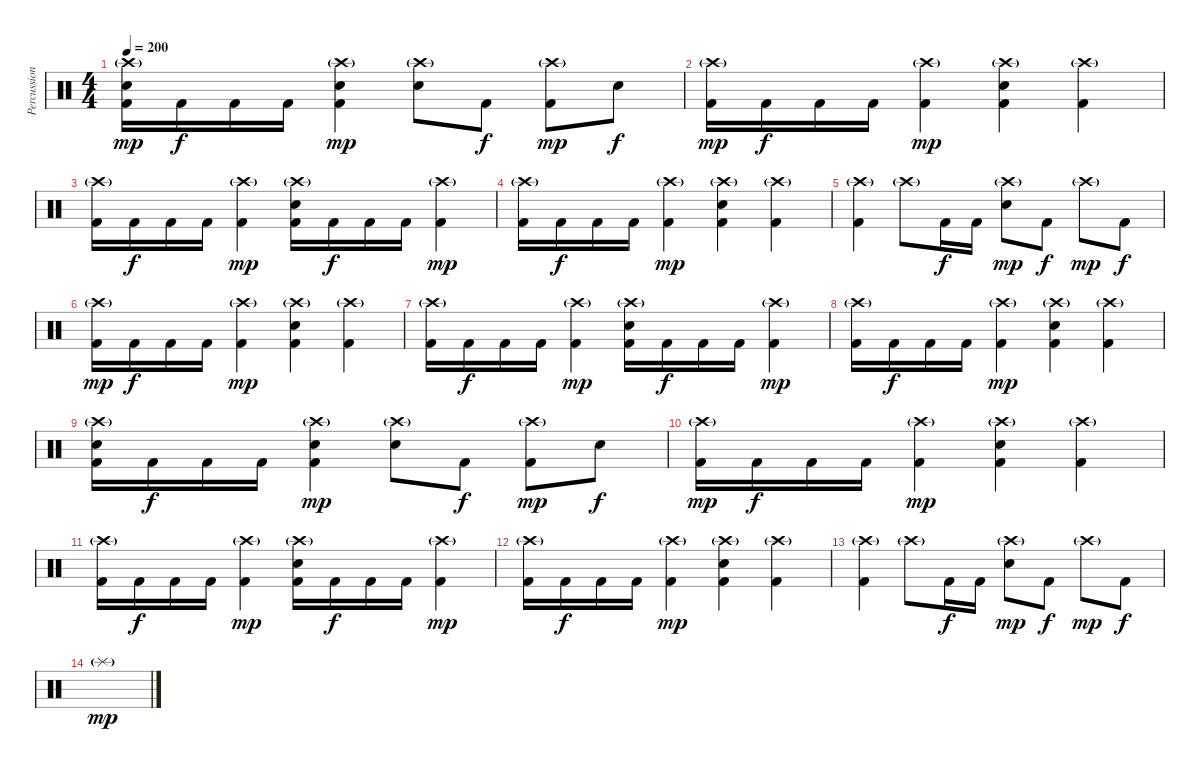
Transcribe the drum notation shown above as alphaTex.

\track ("Percussion" "Percussion") {instrument percussion}
\staff {score}
\articulation defaults
\ts (4 4)
\tempo 200
\clef neutral
\ks c
("Crash high (hit)"{g} "Electric Snare (hit)" "Kick (hit) 2").16{dy mp} "Kick (hit) 2".16{dy f} "Kick (hit) 2".16 "Kick (hit) 2".16 ("Crash high (hit)"{g} "Electric Snare (hit)" "Kick (hit) 2").4{dy mp} ("Crash high (hit)"{g} "Electric Snare (hit)").8 "Kick (hit) 2".8{dy f} ("Crash high (hit)"{g} "Kick (hit) 2").8{dy mp} "Electric Snare (hit)".8{dy f} |
("Crash high (hit)"{g} "Kick (hit) 2").16{dy mp} "Kick (hit) 2".16{dy f} "Kick (hit) 2".16 "Kick (hit) 2".16 ("Crash high (hit)"{g} "Kick (hit) 2").4{dy mp} ("Crash high (hit)"{g} "Electric Snare (hit)" "Kick (hit) 2").4 ("Crash high (hit)"{g} "Kick (hit) 2").4 |
("Crash high (hit)"{g} "Kick (hit) 2").16 "Kick (hit) 2".16{dy f} "Kick (hit) 2".16 "Kick (hit) 2".16 ("Crash high (hit)"{g} "Kick (hit) 2").4{dy mp} ("Crash high (hit)"{g} "Electric Snare (hit)" "Kick (hit) 2").16 "Kick (hit) 2".16{dy f} "Kick (hit) 2".16 "Kick (hit) 2".16 ("Crash high (hit)"{g} "Kick (hit) 2").4{dy mp} |
("Crash high (hit)"{g} "Kick (hit) 2").16 "Kick (hit) 2".16{dy f} "Kick (hit) 2".16 "Kick (hit) 2".16 ("Crash high (hit)"{g} "Kick (hit) 2").4{dy mp} ("Crash high (hit)"{g} "Electric Snare (hit)" "Kick (hit) 2").4 ("Crash high (hit)"{g} "Kick (hit) 2").4 |
("Crash high (hit)"{g} "Kick (hit) 2").4 "Crash high (hit)"{g}.8 "Kick (hit) 2".16{dy f} "Kick (hit) 2".16 ("Crash high (hit)"{g} "Electric Snare (hit)").8{dy mp} "Kick (hit) 2".8{dy f} "Crash high (hit)"{g}.8{dy mp} "Kick (hit) 2".8{dy f} |
("Crash high (hit)"{g} "Kick (hit) 2").16{dy mp} "Kick (hit) 2".16{dy f} "Kick (hit) 2".16 "Kick (hit) 2".16 ("Crash high (hit)"{g} "Kick (hit) 2").4{dy mp} ("Crash high (hit)"{g} "Electric Snare (hit)" "Kick (hit) 2").4 ("Crash high (hit)"{g} "Kick (hit) 2").4 |
("Crash high (hit)"{g} "Kick (hit) 2").16 "Kick (hit) 2".16{dy f} "Kick (hit) 2".16 "Kick (hit) 2".16 ("Crash high (hit)"{g} "Kick (hit) 2").4{dy mp} ("Crash high (hit)"{g} "Electric Snare (hit)" "Kick (hit) 2").16 "Kick (hit) 2".16{dy f} "Kick (hit) 2".16 "Kick (hit) 2".16 ("Crash high (hit)"{g} "Kick (hit) 2").4{dy mp} |
("Crash high (hit)"{g} "Kick (hit) 2").16 "Kick (hit) 2".16{dy f} "Kick (hit) 2".16 "Kick (hit) 2".16 ("Crash high (hit)"{g} "Kick (hit) 2").4{dy mp} ("Crash high (hit)"{g} "Electric Snare (hit)" "Kick (hit) 2").4 ("Crash high (hit)"{g} "Kick (hit) 2").4 |
("Crash high (hit)"{g} "Electric Snare (hit)" "Kick (hit) 2").16 "Kick (hit) 2".16{dy f} "Kick (hit) 2".16 "Kick (hit) 2".16 ("Crash high (hit)"{g} "Electric Snare (hit)" "Kick (hit) 2").4{dy mp} ("Crash high (hit)"{g} "Electric Snare (hit)").8 "Kick (hit) 2".8{dy f} ("Crash high (hit)"{g} "Kick (hit) 2").8{dy mp} "Electric Snare (hit)".8{dy f} |
("Crash high (hit)"{g} "Kick (hit) 2").16{dy mp} "Kick (hit) 2".16{dy f} "Kick (hit) 2".16 "Kick (hit) 2".16 ("Crash high (hit)"{g} "Kick (hit) 2").4{dy mp} ("Crash high (hit)"{g} "Electric Snare (hit)" "Kick (hit) 2").4 ("Crash high (hit)"{g} "Kick (hit) 2").4 |
("Crash high (hit)"{g} "Kick (hit) 2").16 "Kick (hit) 2".16{dy f} "Kick (hit) 2".16 "Kick (hit) 2".16 ("Crash high (hit)"{g} "Kick (hit) 2").4{dy mp} ("Crash high (hit)"{g} "Electric Snare (hit)" "Kick (hit) 2").16 "Kick (hit) 2".16{dy f} "Kick (hit) 2".16 "Kick (hit) 2".16 ("Crash high (hit)"{g} "Kick (hit) 2").4{dy mp} |
("Crash high (hit)"{g} "Kick (hit) 2").16 "Kick (hit) 2".16{dy f} "Kick (hit) 2".16 "Kick (hit) 2".16 ("Crash high (hit)"{g} "Kick (hit) 2").4{dy mp} ("Crash high (hit)"{g} "Electric Snare (hit)" "Kick (hit) 2").4 ("Crash high (hit)"{g} "Kick (hit) 2").4 |
("Crash high (hit)"{g} "Kick (hit) 2").4 "Crash high (hit)"{g}.8 "Kick (hit) 2".16{dy f} "Kick (hit) 2".16 ("Crash high (hit)"{g} "Electric Snare (hit)").8{dy mp} "Kick (hit) 2".8{dy f} "Crash high (hit)"{g}.8{dy mp} "Kick (hit) 2".8{dy f} |
"Splash (hit)"{g}.1{dy mp balance 0}
